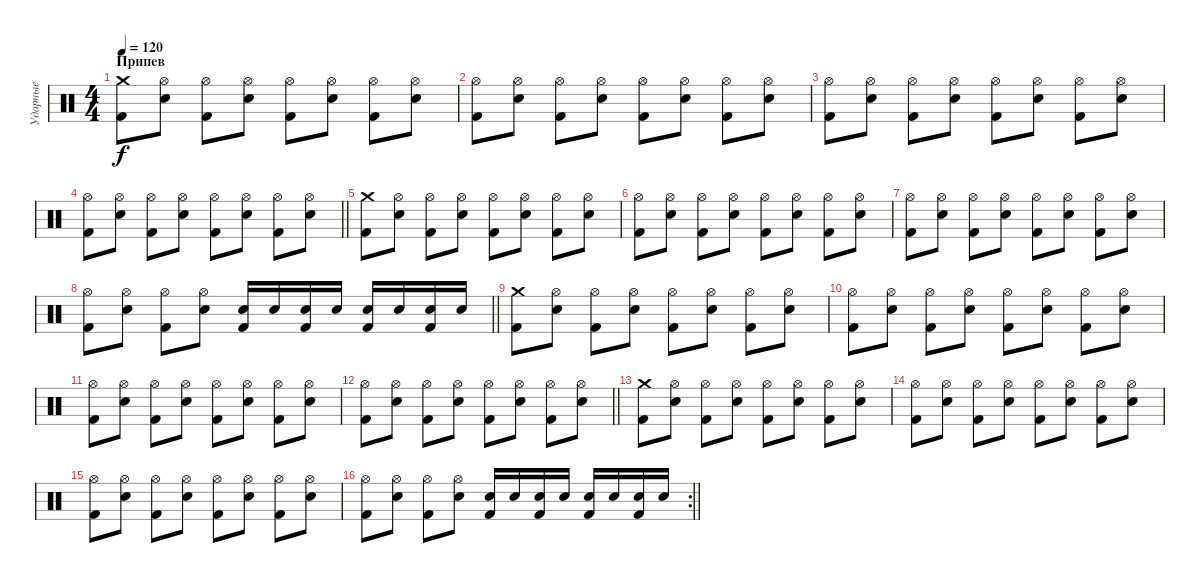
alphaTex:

\track ("Ударные" "Ударные") {instrument percussion}
\staff {score}
\articulation defaults
\ts (4 4)
\section ("" "Припев")
\tempo 120
\clef neutral
\ks c
("Crash medium (hit)" "Kick (hit) 2").8{dy f} ("Hi-Hat (open)" "Snare (hit) 2").8 ("Hi-Hat (open)" "Kick (hit) 2").8 ("Hi-Hat (open)" "Snare (hit) 2").8 ("Hi-Hat (open)" "Kick (hit) 2").8 ("Hi-Hat (open)" "Snare (hit) 2").8 ("Hi-Hat (open)" "Kick (hit) 2").8 ("Hi-Hat (open)" "Snare (hit) 2").8 |
("Hi-Hat (open)" "Kick (hit) 2").8 ("Hi-Hat (open)" "Snare (hit) 2").8 ("Hi-Hat (open)" "Kick (hit) 2").8 ("Hi-Hat (open)" "Snare (hit) 2").8 ("Hi-Hat (open)" "Kick (hit) 2").8 ("Hi-Hat (open)" "Snare (hit) 2").8 ("Hi-Hat (open)" "Kick (hit) 2").8 ("Hi-Hat (open)" "Snare (hit) 2").8 |
("Hi-Hat (open)" "Kick (hit) 2").8 ("Hi-Hat (open)" "Snare (hit) 2").8 ("Hi-Hat (open)" "Kick (hit) 2").8 ("Hi-Hat (open)" "Snare (hit) 2").8 ("Hi-Hat (open)" "Kick (hit) 2").8 ("Hi-Hat (open)" "Snare (hit) 2").8 ("Hi-Hat (open)" "Kick (hit) 2").8 ("Hi-Hat (open)" "Snare (hit) 2").8 |
\barLineRight lightlight
("Hi-Hat (open)" "Kick (hit) 2").8 ("Hi-Hat (open)" "Snare (hit) 2").8 ("Hi-Hat (open)" "Kick (hit) 2").8 ("Hi-Hat (open)" "Snare (hit) 2").8 ("Hi-Hat (open)" "Kick (hit) 2").8 ("Hi-Hat (open)" "Snare (hit) 2").8 ("Hi-Hat (open)" "Kick (hit) 2").8 ("Hi-Hat (open)" "Snare (hit) 2").8 |
("Crash medium (hit)" "Kick (hit) 2").8 ("Hi-Hat (open)" "Snare (hit) 2").8 ("Hi-Hat (open)" "Kick (hit) 2").8 ("Hi-Hat (open)" "Snare (hit) 2").8 ("Hi-Hat (open)" "Kick (hit) 2").8 ("Hi-Hat (open)" "Snare (hit) 2").8 ("Hi-Hat (open)" "Kick (hit) 2").8 ("Hi-Hat (open)" "Snare (hit) 2").8 |
("Hi-Hat (open)" "Kick (hit) 2").8 ("Hi-Hat (open)" "Snare (hit) 2").8 ("Hi-Hat (open)" "Kick (hit) 2").8 ("Hi-Hat (open)" "Snare (hit) 2").8 ("Hi-Hat (open)" "Kick (hit) 2").8 ("Hi-Hat (open)" "Snare (hit) 2").8 ("Hi-Hat (open)" "Kick (hit) 2").8 ("Hi-Hat (open)" "Snare (hit) 2").8 |
("Hi-Hat (open)" "Kick (hit) 2").8 ("Hi-Hat (open)" "Snare (hit) 2").8 ("Hi-Hat (open)" "Kick (hit) 2").8 ("Hi-Hat (open)" "Snare (hit) 2").8 ("Hi-Hat (open)" "Kick (hit) 2").8 ("Hi-Hat (open)" "Snare (hit) 2").8 ("Hi-Hat (open)" "Kick (hit) 2").8 ("Hi-Hat (open)" "Snare (hit) 2").8 |
\barLineRight lightlight
("Hi-Hat (open)" "Kick (hit) 2").8 ("Hi-Hat (open)" "Snare (hit) 2").8 ("Hi-Hat (open)" "Kick (hit) 2").8 ("Hi-Hat (open)" "Snare (hit) 2").8 ("Snare (hit) 2" "Kick (hit) 2").16 "Snare (hit) 2".16 ("Snare (hit) 2" "Kick (hit) 2").16 "Snare (hit) 2".16 ("Snare (hit) 2" "Kick (hit) 2").16 "Snare (hit) 2".16 ("Snare (hit) 2" "Kick (hit) 2").16 "Snare (hit) 2".16 |
("Crash medium (hit)" "Kick (hit) 2").8 ("Hi-Hat (open)" "Snare (hit) 2").8 ("Hi-Hat (open)" "Kick (hit) 2").8 ("Hi-Hat (open)" "Snare (hit) 2").8 ("Hi-Hat (open)" "Kick (hit) 2").8 ("Hi-Hat (open)" "Snare (hit) 2").8 ("Hi-Hat (open)" "Kick (hit) 2").8 ("Hi-Hat (open)" "Snare (hit) 2").8 |
("Hi-Hat (open)" "Kick (hit) 2").8 ("Hi-Hat (open)" "Snare (hit) 2").8 ("Hi-Hat (open)" "Kick (hit) 2").8 ("Hi-Hat (open)" "Snare (hit) 2").8 ("Hi-Hat (open)" "Kick (hit) 2").8 ("Hi-Hat (open)" "Snare (hit) 2").8 ("Hi-Hat (open)" "Kick (hit) 2").8 ("Hi-Hat (open)" "Snare (hit) 2").8 |
("Hi-Hat (open)" "Kick (hit) 2").8 ("Hi-Hat (open)" "Snare (hit) 2").8 ("Hi-Hat (open)" "Kick (hit) 2").8 ("Hi-Hat (open)" "Snare (hit) 2").8 ("Hi-Hat (open)" "Kick (hit) 2").8 ("Hi-Hat (open)" "Snare (hit) 2").8 ("Hi-Hat (open)" "Kick (hit) 2").8 ("Hi-Hat (open)" "Snare (hit) 2").8 |
\barLineRight lightlight
("Hi-Hat (open)" "Kick (hit) 2").8 ("Hi-Hat (open)" "Snare (hit) 2").8 ("Hi-Hat (open)" "Kick (hit) 2").8 ("Hi-Hat (open)" "Snare (hit) 2").8 ("Hi-Hat (open)" "Kick (hit) 2").8 ("Hi-Hat (open)" "Snare (hit) 2").8 ("Hi-Hat (open)" "Kick (hit) 2").8 ("Hi-Hat (open)" "Snare (hit) 2").8 |
("Crash medium (hit)" "Kick (hit) 2").8 ("Hi-Hat (open)" "Snare (hit) 2").8 ("Hi-Hat (open)" "Kick (hit) 2").8 ("Hi-Hat (open)" "Snare (hit) 2").8 ("Hi-Hat (open)" "Kick (hit) 2").8 ("Hi-Hat (open)" "Snare (hit) 2").8 ("Hi-Hat (open)" "Kick (hit) 2").8 ("Hi-Hat (open)" "Snare (hit) 2").8 |
("Hi-Hat (open)" "Kick (hit) 2").8 ("Hi-Hat (open)" "Snare (hit) 2").8 ("Hi-Hat (open)" "Kick (hit) 2").8 ("Hi-Hat (open)" "Snare (hit) 2").8 ("Hi-Hat (open)" "Kick (hit) 2").8 ("Hi-Hat (open)" "Snare (hit) 2").8 ("Hi-Hat (open)" "Kick (hit) 2").8 ("Hi-Hat (open)" "Snare (hit) 2").8 |
("Hi-Hat (open)" "Kick (hit) 2").8 ("Hi-Hat (open)" "Snare (hit) 2").8 ("Hi-Hat (open)" "Kick (hit) 2").8 ("Hi-Hat (open)" "Snare (hit) 2").8 ("Hi-Hat (open)" "Kick (hit) 2").8 ("Hi-Hat (open)" "Snare (hit) 2").8 ("Hi-Hat (open)" "Kick (hit) 2").8 ("Hi-Hat (open)" "Snare (hit) 2").8 |
\rc 2
\barLineRight lightlight
("Hi-Hat (open)" "Kick (hit) 2").8 ("Hi-Hat (open)" "Snare (hit) 2").8 ("Hi-Hat (open)" "Kick (hit) 2").8 ("Hi-Hat (open)" "Snare (hit) 2").8 ("Snare (hit) 2" "Kick (hit) 2").16 "Snare (hit) 2".16 ("Snare (hit) 2" "Kick (hit) 2").16 "Snare (hit) 2".16 ("Snare (hit) 2" "Kick (hit) 2").16 "Snare (hit) 2".16 ("Snare (hit) 2" "Kick (hit) 2").16 "Snare (hit) 2".16
